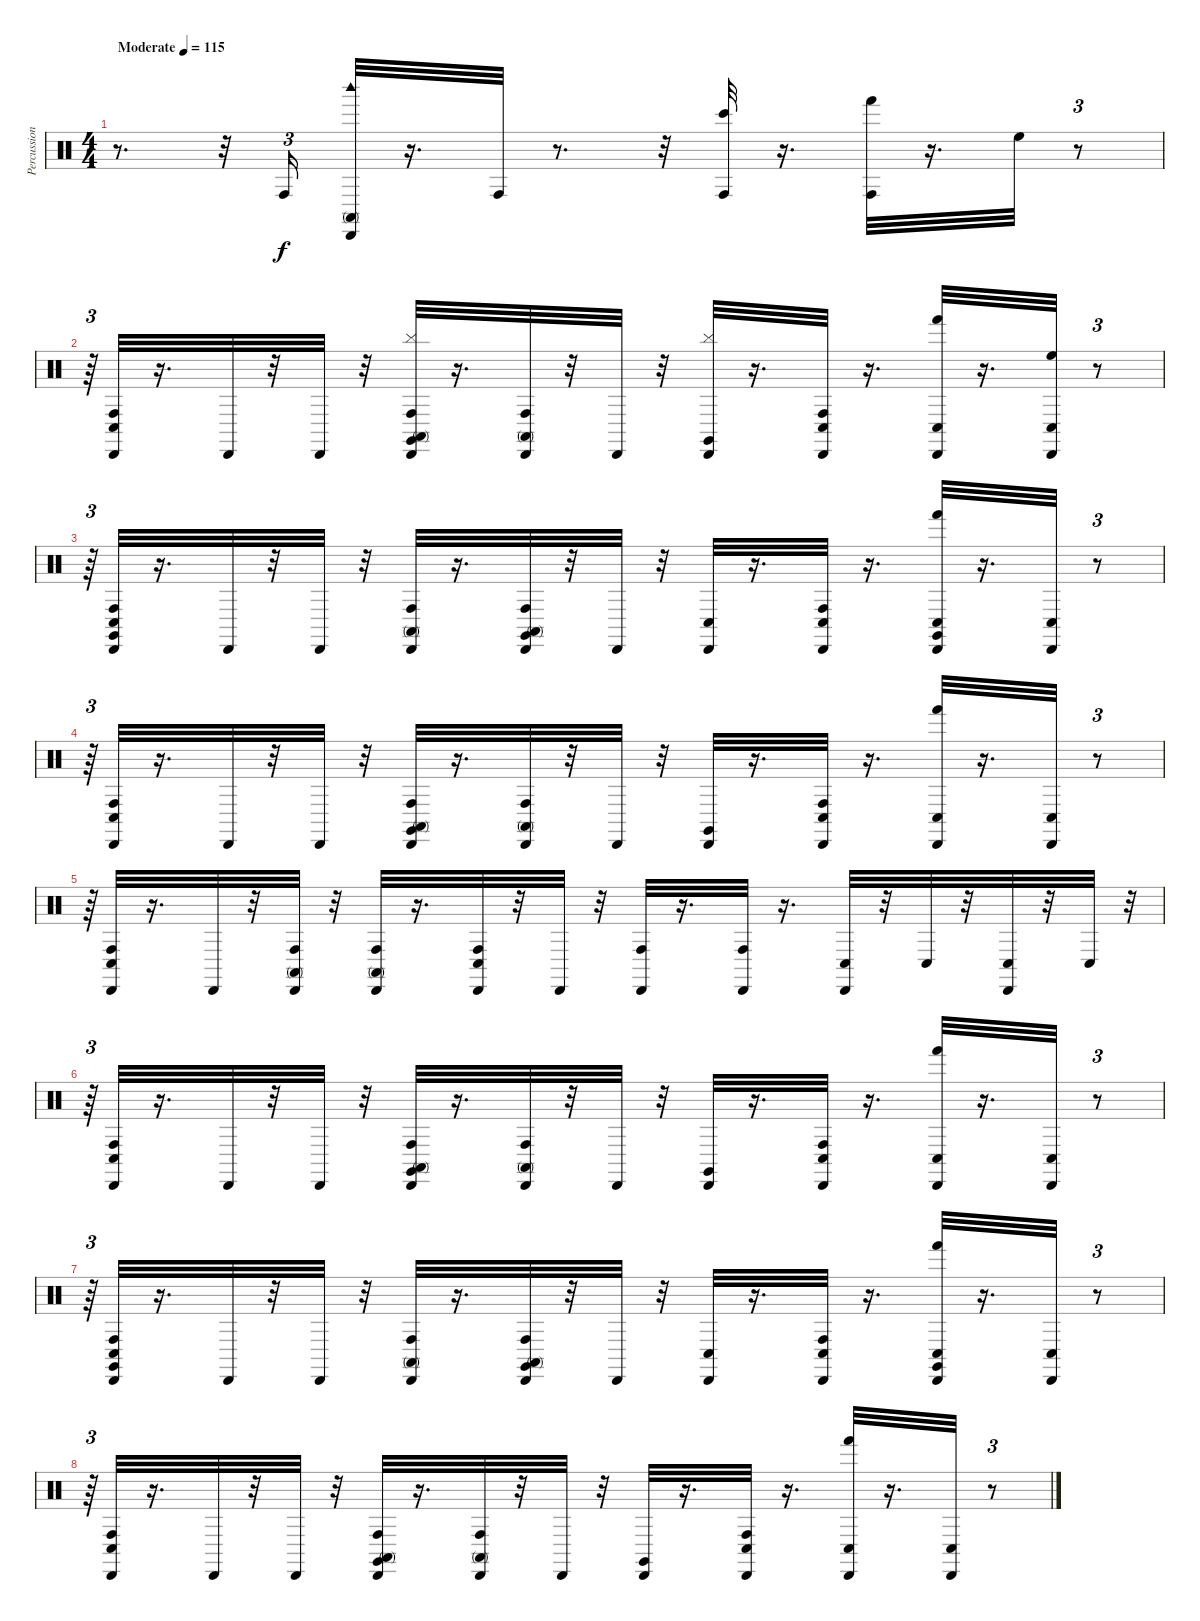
\track ("Percussion" "Percussion") {instrument percussion}
\staff {score}
\articulation defaults
\ts (4 4)
\tempo (115 "Moderate")
\clef neutral
\ks c
r.8{d dy f} r.32 "Conga high (hit)".16{tu (3 2)} ("Conga high (mute)" "Cabasa (hit)" "Woodblock high (hit)").32 r.16{d} "Conga high (hit)".32 r.8{d} r.32 ("Bongo High (hit)" "Conga high (hit)").32 r.16{d} ("Hand (hit)" "Conga high (hit)").32 r.16{d} "High Floor Tom (hit)".32 r.8{tu (3 2)} |
r.64{tu (3 2)} ("Conga low (hit)" "Conga high (hit)" "Cabasa (hit)").32 r.16{d} "Cabasa (hit)".32 r.32 "Cabasa (hit)".32 r.32 ("Conga high (hit)" "Conga high (mute)" "Claves (hit)" "Cymbal (hit)" "Cabasa (hit)").32 r.16{d} ("Conga high (hit)" "Cabasa (hit)" "Conga high (mute)").32 r.32 "Cabasa (hit)".32 r.32 ("Cymbal (hit)" "Claves (hit)" "Cabasa (hit)").32 r.16{d} ("Conga low (hit)" "Conga high (hit)" "Cabasa (hit)").32 r.16{d} ("Hand (hit)" "Cabasa (hit)" "Conga low (hit)").32 r.16{d} ("Conga low (hit)" "Cabasa (hit)" "High Floor Tom (hit)").32 r.8{tu (3 2)} |
r.64{tu (3 2)} ("Conga low (hit)" "Claves (hit)" "Cabasa (hit)" "Conga high (hit)").32 r.16{d} "Cabasa (hit)".32 r.32 "Cabasa (hit)".32 r.32 ("Conga high (hit)" "Cabasa (hit)" "Conga high (mute)").32 r.16{d} ("Conga high (hit)" "Claves (hit)" "Cabasa (hit)" "Conga high (mute)").32 r.32 "Cabasa (hit)".32 r.32 ("Cabasa (hit)" "Conga low (hit)").32 r.16{d} ("Conga high (hit)" "Conga low (hit)" "Cabasa (hit)").32 r.16{d} ("Hand (hit)" "Claves (hit)" "Cabasa (hit)" "Conga low (hit)").32 r.16{d} ("Cabasa (hit)" "Conga low (hit)").32 r.8{tu (3 2)} |
r.64{tu (3 2)} ("Cabasa (hit)" "Conga high (hit)" "Conga low (hit)").32 r.16{d} "Cabasa (hit)".32 r.32 "Cabasa (hit)".32 r.32 ("Cabasa (hit)" "Claves (hit)" "Conga high (mute)" "Conga high (hit)").32 r.16{d} ("Conga high (hit)" "Conga high (mute)" "Cabasa (hit)").32 r.32 "Cabasa (hit)".32 r.32 ("Claves (hit)" "Cabasa (hit)").32 r.16{d} ("Conga low (hit)" "Cabasa (hit)" "Conga high (hit)").32 r.16{d} ("Cabasa (hit)" "Conga low (hit)" "Hand (hit)").32 r.16{d} ("Cabasa (hit)" "Conga low (hit)").32 r.8{tu (3 2)} |
r.64{tu (3 2)} ("Conga low (hit)" "Conga high (hit)" "Cabasa (hit)").32 r.16{d} "Cabasa (hit)".32 r.32 ("Conga high (hit)" "Conga high (mute)" "Cabasa (hit)").32 r.32 ("Conga high (hit)" "Conga high (mute)" "Cabasa (hit)").32 r.16{d} ("Conga low (hit)" "Conga high (hit)" "Cabasa (hit)").32 r.32 "Cabasa (hit)".32 r.32 ("Conga high (hit)" "Cabasa (hit)").32 r.16{d} ("Conga high (hit)" "Cabasa (hit)").32 r.16{d} ("Conga low (hit)" "Cabasa (hit)").32 r.32 "Conga low (hit)".32 r.32 ("Conga low (hit)" "Cabasa (hit)").32 r.32 "Conga low (hit)".32 r.32{tu (3 2)} |
r.64{tu (3 2)} ("Conga low (hit)" "Conga high (hit)" "Cabasa (hit)").32 r.16{d} "Cabasa (hit)".32 r.32 "Cabasa (hit)".32 r.32 ("Conga high (hit)" "Conga high (mute)" "Claves (hit)" "Cabasa (hit)").32 r.16{d} ("Cabasa (hit)" "Conga high (mute)" "Conga high (hit)").32 r.32 "Cabasa (hit)".32 r.32 ("Claves (hit)" "Cabasa (hit)").32 r.16{d} ("Conga low (hit)" "Conga high (hit)" "Cabasa (hit)").32 r.16{d} ("Hand (hit)" "Cabasa (hit)" "Conga low (hit)").32 r.16{d} ("Conga low (hit)" "Cabasa (hit)").32 r.8{tu (3 2)} |
r.64{tu (3 2)} ("Claves (hit)" "Conga low (hit)" "Cabasa (hit)" "Conga high (hit)").32 r.16{d} "Cabasa (hit)".32 r.32 "Cabasa (hit)".32 r.32 ("Conga high (hit)" "Cabasa (hit)" "Conga high (mute)").32 r.16{d} ("Cabasa (hit)" "Claves (hit)" "Conga high (mute)" "Conga high (hit)").32 r.32 "Cabasa (hit)".32 r.32 ("Conga low (hit)" "Cabasa (hit)").32 r.16{d} ("Conga low (hit)" "Cabasa (hit)" "Conga high (hit)").32 r.16{d} ("Cabasa (hit)" "Hand (hit)" "Conga low (hit)" "Claves (hit)").32 r.16{d} ("Cabasa (hit)" "Conga low (hit)").32 r.8{tu (3 2)} |
r.64{tu (3 2)} ("Conga low (hit)" "Cabasa (hit)" "Conga high (hit)").32 r.16{d} "Cabasa (hit)".32 r.32 "Cabasa (hit)".32 r.32 ("Cabasa (hit)" "Claves (hit)" "Conga high (mute)" "Conga high (hit)").32 r.16{d} ("Conga high (hit)" "Conga high (mute)" "Cabasa (hit)").32 r.32 "Cabasa (hit)".32 r.32 ("Claves (hit)" "Cabasa (hit)").32 r.16{d} ("Cabasa (hit)" "Conga low (hit)" "Conga high (hit)").32 r.16{d} ("Cabasa (hit)" "Hand (hit)" "Conga low (hit)").32 r.16{d} ("Cabasa (hit)" "Conga low (hit)").32 r.8{tu (3 2)}
